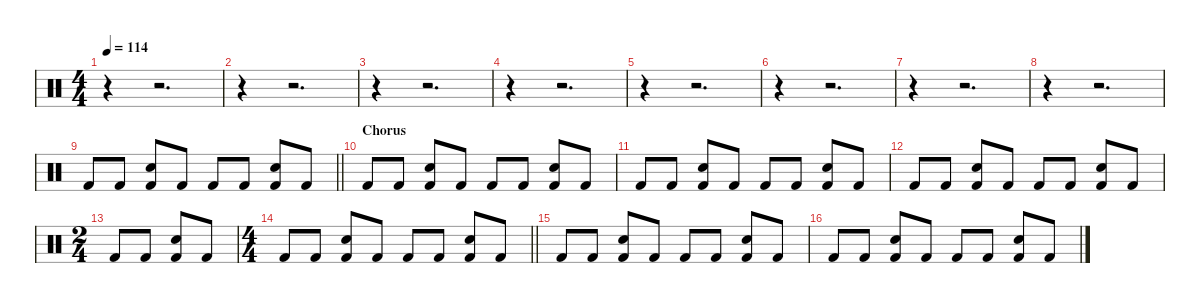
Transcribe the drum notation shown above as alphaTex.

\defaultSystemsLayout 4
\hideDynamics
\bracketExtendMode nobrackets
\singleTrackTrackNamePolicy hidden
\multiTrackTrackNamePolicy hidden
\firstSystemTrackNameMode fullname
\firstSystemTrackNameOrientation horizontal
\otherSystemsTrackNameOrientation horizontal
\track ("Percussion-bu" "drm.") {mute instrument percussion}
\staff {score}
\articulation defaults
\ts (4 4)
\tempo 114
\clef neutral
\ks c
r.4{dy fff beam Down} r.2{d beam Down} |
r.4{beam Down} r.2{d beam Down} |
r.4{beam Down} r.2{d beam Down} |
r.4{beam Down} r.2{d beam Down} |
r.4{beam Down} r.2{d beam Down} |
r.4{beam Down} r.2{d beam Down} |
r.4{beam Down} r.2{d beam Down} |
r.4{beam Down} r.2{d beam Down} |
\barLineRight lightlight "Kick (hit) 2".8{beam Up} "Kick (hit) 2".8{beam Up}
("Snare (hit) 2" "Kick (hit) 2").8{dy mf beam Up} "Kick (hit) 2".8{dy fff beam Up} "Kick (hit) 2".8{beam Up} "Kick (hit) 2".8{beam Up} ("Snare (hit) 2" "Kick (hit) 2").8{dy mf beam Up} "Kick (hit) 2".8{dy fff beam Up} |
\section ("" "Chorus")
"Kick (hit) 2".8{beam Up} "Kick (hit) 2".8{beam Up} ("Snare (hit) 2" "Kick (hit) 2").8{dy mf beam Up} "Kick (hit) 2".8{dy fff beam Up} "Kick (hit) 2".8{beam Up} "Kick (hit) 2".8{beam Up} ("Snare (hit) 2" "Kick (hit) 2").8{dy mf beam Up} "Kick (hit) 2".8{dy fff beam Up} |
"Kick (hit) 2".8{beam Up} "Kick (hit) 2".8{beam Up} ("Snare (hit) 2" "Kick (hit) 2").8{dy mf beam Up} "Kick (hit) 2".8{dy fff beam Up} "Kick (hit) 2".8{beam Up} "Kick (hit) 2".8{beam Up} ("Snare (hit) 2" "Kick (hit) 2").8{dy mf beam Up} "Kick (hit) 2".8{dy fff beam Up} |
"Kick (hit) 2".8{beam Up} "Kick (hit) 2".8{beam Up} ("Snare (hit) 2" "Kick (hit) 2").8{dy mf beam Up} "Kick (hit) 2".8{dy fff beam Up} "Kick (hit) 2".8{beam Up} "Kick (hit) 2".8{beam Up} ("Snare (hit) 2" "Kick (hit) 2").8{dy mf beam Up} "Kick (hit) 2".8{dy fff beam Up} |
\ts (2 4)
\beaming (8 2 2)
"Kick (hit) 2".8{beam Up} "Kick (hit) 2".8{beam Up} ("Snare (hit) 2" "Kick (hit) 2").8{dy mf beam Up} "Kick (hit) 2".8{dy fff beam Up} |
\ts (4 4)
\beaming (8 2 2 2 2)
\barLineRight lightlight "Kick (hit) 2".8{beam Up} "Kick (hit) 2".8{beam Up}
("Snare (hit) 2" "Kick (hit) 2").8{dy mf beam Up} "Kick (hit) 2".8{dy fff beam Up} "Kick (hit) 2".8{beam Up} "Kick (hit) 2".8{beam Up} ("Snare (hit) 2" "Kick (hit) 2").8{dy mf beam Up} "Kick (hit) 2".8{dy fff beam Up} |
"Kick (hit) 2".8{beam Up} "Kick (hit) 2".8{beam Up} ("Snare (hit) 2" "Kick (hit) 2").8{dy mf beam Up} "Kick (hit) 2".8{dy fff beam Up} "Kick (hit) 2".8{beam Up} "Kick (hit) 2".8{beam Up} ("Snare (hit) 2" "Kick (hit) 2").8{dy mf beam Up} "Kick (hit) 2".8{dy fff beam Up} |
"Kick (hit) 2".8{beam Up} "Kick (hit) 2".8{beam Up} ("Snare (hit) 2" "Kick (hit) 2").8{dy mf beam Up} "Kick (hit) 2".8{dy fff beam Up} "Kick (hit) 2".8{beam Up} "Kick (hit) 2".8{beam Up} ("Snare (hit) 2" "Kick (hit) 2").8{dy mf beam Up} "Kick (hit) 2".8{dy fff beam Up}
